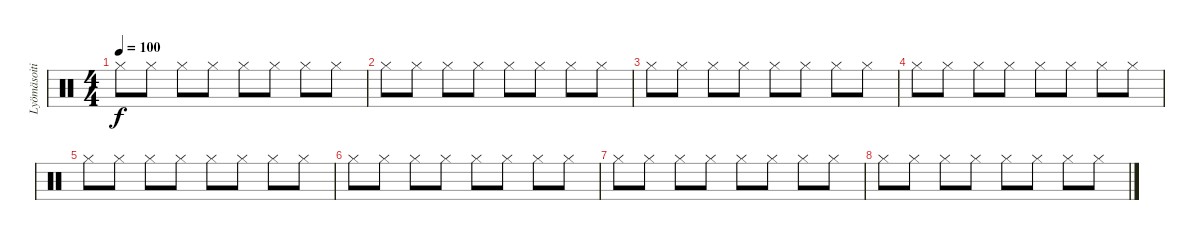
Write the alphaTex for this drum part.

\track ("Lyömäsoitin" "Lyömäsoiti") {instrument percussion}
\staff {score}
\articulation defaults
\ts (4 4)
\tempo 100
\clef neutral
\ks c "Hi-Hat (closed)".8{dy f} "Hi-Hat (closed)".8 "Hi-Hat (closed)".8 "Hi-Hat (closed)".8 "Hi-Hat (closed)".8 "Hi-Hat (closed)".8 "Hi-Hat (closed)".8 "Hi-Hat (closed)".8
|
"Hi-Hat (closed)".8 "Hi-Hat (closed)".8 "Hi-Hat (closed)".8 "Hi-Hat (closed)".8 "Hi-Hat (closed)".8 "Hi-Hat (closed)".8 "Hi-Hat (closed)".8 "Hi-Hat (closed)".8 |
"Hi-Hat (closed)".8 "Hi-Hat (closed)".8 "Hi-Hat (closed)".8 "Hi-Hat (closed)".8 "Hi-Hat (closed)".8 "Hi-Hat (closed)".8 "Hi-Hat (closed)".8 "Hi-Hat (closed)".8 |
"Hi-Hat (closed)".8 "Hi-Hat (closed)".8 "Hi-Hat (closed)".8 "Hi-Hat (closed)".8 "Hi-Hat (closed)".8 "Hi-Hat (closed)".8 "Hi-Hat (closed)".8 "Hi-Hat (closed)".8 |
"Hi-Hat (closed)".8 "Hi-Hat (closed)".8 "Hi-Hat (closed)".8 "Hi-Hat (closed)".8 "Hi-Hat (closed)".8 "Hi-Hat (closed)".8 "Hi-Hat (closed)".8 "Hi-Hat (closed)".8 |
"Hi-Hat (closed)".8 "Hi-Hat (closed)".8 "Hi-Hat (closed)".8 "Hi-Hat (closed)".8 "Hi-Hat (closed)".8 "Hi-Hat (closed)".8 "Hi-Hat (closed)".8 "Hi-Hat (closed)".8 |
"Hi-Hat (closed)".8 "Hi-Hat (closed)".8 "Hi-Hat (closed)".8 "Hi-Hat (closed)".8 "Hi-Hat (closed)".8 "Hi-Hat (closed)".8 "Hi-Hat (closed)".8 "Hi-Hat (closed)".8 |
"Hi-Hat (closed)".8 "Hi-Hat (closed)".8 "Hi-Hat (closed)".8 "Hi-Hat (closed)".8 "Hi-Hat (closed)".8 "Hi-Hat (closed)".8 "Hi-Hat (closed)".8 "Hi-Hat (closed)".8
